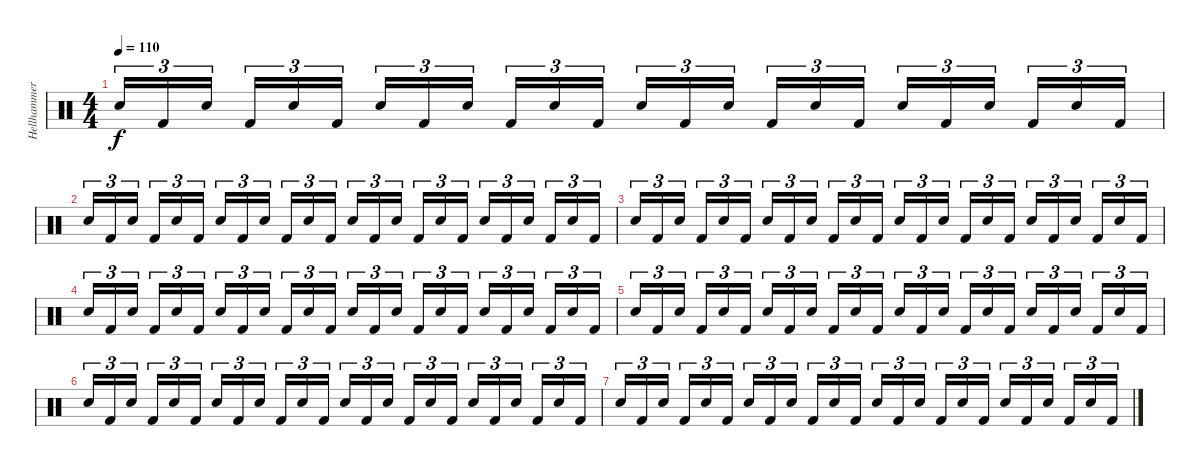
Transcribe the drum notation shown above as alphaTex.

\track ("Hellhammer" "Hellhammer") {instrument percussion}
\staff {score}
\articulation defaults
\ts (4 4)
\tempo 110
\clef neutral
\ks c "Electric Snare (hit)".16{tu (3 2) dy f} "Kick (hit) 2".16{tu (3 2)} "Electric Snare (hit)".16{tu (3 2)} "Kick (hit) 2".16{tu (3 2)} "Electric Snare (hit)".16{tu (3 2)} "Kick (hit) 2".16{tu (3 2)} "Electric Snare (hit)".16{tu (3 2)} "Kick (hit) 2".16{tu (3 2)} "Electric Snare (hit)".16{tu (3 2)} "Kick (hit) 2".16{tu (3 2)} "Electric Snare (hit)".16{tu (3 2)} "Kick (hit) 2".16{tu (3 2)} "Electric Snare (hit)".16{tu (3 2)} "Kick (hit) 2".16{tu (3 2)} "Electric Snare (hit)".16{tu (3 2)} "Kick (hit) 2".16{tu (3 2)} "Electric Snare (hit)".16{tu (3 2)} "Kick (hit) 2".16{tu (3 2)} "Electric Snare (hit)".16{tu (3 2)} "Kick (hit) 2".16{tu (3 2)} "Electric Snare (hit)".16{tu (3 2)} "Kick (hit) 2".16{tu (3 2)} "Electric Snare (hit)".16{tu (3 2)} "Kick (hit) 2".16{tu (3 2)}
|
"Electric Snare (hit)".16{tu (3 2)} "Kick (hit) 2".16{tu (3 2)} "Electric Snare (hit)".16{tu (3 2)} "Kick (hit) 2".16{tu (3 2)} "Electric Snare (hit)".16{tu (3 2)} "Kick (hit) 2".16{tu (3 2)} "Electric Snare (hit)".16{tu (3 2)} "Kick (hit) 2".16{tu (3 2)} "Electric Snare (hit)".16{tu (3 2)} "Kick (hit) 2".16{tu (3 2)} "Electric Snare (hit)".16{tu (3 2)} "Kick (hit) 2".16{tu (3 2)} "Electric Snare (hit)".16{tu (3 2)} "Kick (hit) 2".16{tu (3 2)} "Electric Snare (hit)".16{tu (3 2)} "Kick (hit) 2".16{tu (3 2)} "Electric Snare (hit)".16{tu (3 2)} "Kick (hit) 2".16{tu (3 2)} "Electric Snare (hit)".16{tu (3 2)} "Kick (hit) 2".16{tu (3 2)} "Electric Snare (hit)".16{tu (3 2)} "Kick (hit) 2".16{tu (3 2)} "Electric Snare (hit)".16{tu (3 2)} "Kick (hit) 2".16{tu (3 2)} |
"Electric Snare (hit)".16{tu (3 2)} "Kick (hit) 2".16{tu (3 2)} "Electric Snare (hit)".16{tu (3 2)} "Kick (hit) 2".16{tu (3 2)} "Electric Snare (hit)".16{tu (3 2)} "Kick (hit) 2".16{tu (3 2)} "Electric Snare (hit)".16{tu (3 2)} "Kick (hit) 2".16{tu (3 2)} "Electric Snare (hit)".16{tu (3 2)} "Kick (hit) 2".16{tu (3 2)} "Electric Snare (hit)".16{tu (3 2)} "Kick (hit) 2".16{tu (3 2)} "Electric Snare (hit)".16{tu (3 2)} "Kick (hit) 2".16{tu (3 2)} "Electric Snare (hit)".16{tu (3 2)} "Kick (hit) 2".16{tu (3 2)} "Electric Snare (hit)".16{tu (3 2)} "Kick (hit) 2".16{tu (3 2)} "Electric Snare (hit)".16{tu (3 2)} "Kick (hit) 2".16{tu (3 2)} "Electric Snare (hit)".16{tu (3 2)} "Kick (hit) 2".16{tu (3 2)} "Electric Snare (hit)".16{tu (3 2)} "Kick (hit) 2".16{tu (3 2)} |
"Electric Snare (hit)".16{tu (3 2)} "Kick (hit) 2".16{tu (3 2)} "Electric Snare (hit)".16{tu (3 2)} "Kick (hit) 2".16{tu (3 2)} "Electric Snare (hit)".16{tu (3 2)} "Kick (hit) 2".16{tu (3 2)} "Electric Snare (hit)".16{tu (3 2)} "Kick (hit) 2".16{tu (3 2)} "Electric Snare (hit)".16{tu (3 2)} "Kick (hit) 2".16{tu (3 2)} "Electric Snare (hit)".16{tu (3 2)} "Kick (hit) 2".16{tu (3 2)} "Electric Snare (hit)".16{tu (3 2)} "Kick (hit) 2".16{tu (3 2)} "Electric Snare (hit)".16{tu (3 2)} "Kick (hit) 2".16{tu (3 2)} "Electric Snare (hit)".16{tu (3 2)} "Kick (hit) 2".16{tu (3 2)} "Electric Snare (hit)".16{tu (3 2)} "Kick (hit) 2".16{tu (3 2)} "Electric Snare (hit)".16{tu (3 2)} "Kick (hit) 2".16{tu (3 2)} "Electric Snare (hit)".16{tu (3 2)} "Kick (hit) 2".16{tu (3 2)} |
"Electric Snare (hit)".16{tu (3 2)} "Kick (hit) 2".16{tu (3 2)} "Electric Snare (hit)".16{tu (3 2)} "Kick (hit) 2".16{tu (3 2)} "Electric Snare (hit)".16{tu (3 2)} "Kick (hit) 2".16{tu (3 2)} "Electric Snare (hit)".16{tu (3 2)} "Kick (hit) 2".16{tu (3 2)} "Electric Snare (hit)".16{tu (3 2)} "Kick (hit) 2".16{tu (3 2)} "Electric Snare (hit)".16{tu (3 2)} "Kick (hit) 2".16{tu (3 2)} "Electric Snare (hit)".16{tu (3 2)} "Kick (hit) 2".16{tu (3 2)} "Electric Snare (hit)".16{tu (3 2)} "Kick (hit) 2".16{tu (3 2)} "Electric Snare (hit)".16{tu (3 2)} "Kick (hit) 2".16{tu (3 2)} "Electric Snare (hit)".16{tu (3 2)} "Kick (hit) 2".16{tu (3 2)} "Electric Snare (hit)".16{tu (3 2)} "Kick (hit) 2".16{tu (3 2)} "Electric Snare (hit)".16{tu (3 2)} "Kick (hit) 2".16{tu (3 2)} |
"Electric Snare (hit)".16{tu (3 2)} "Kick (hit) 2".16{tu (3 2)} "Electric Snare (hit)".16{tu (3 2)} "Kick (hit) 2".16{tu (3 2)} "Electric Snare (hit)".16{tu (3 2)} "Kick (hit) 2".16{tu (3 2)} "Electric Snare (hit)".16{tu (3 2)} "Kick (hit) 2".16{tu (3 2)} "Electric Snare (hit)".16{tu (3 2)} "Kick (hit) 2".16{tu (3 2)} "Electric Snare (hit)".16{tu (3 2)} "Kick (hit) 2".16{tu (3 2)} "Electric Snare (hit)".16{tu (3 2)} "Kick (hit) 2".16{tu (3 2)} "Electric Snare (hit)".16{tu (3 2)} "Kick (hit) 2".16{tu (3 2)} "Electric Snare (hit)".16{tu (3 2)} "Kick (hit) 2".16{tu (3 2)} "Electric Snare (hit)".16{tu (3 2)} "Kick (hit) 2".16{tu (3 2)} "Electric Snare (hit)".16{tu (3 2)} "Kick (hit) 2".16{tu (3 2)} "Electric Snare (hit)".16{tu (3 2)} "Kick (hit) 2".16{tu (3 2)} |
"Electric Snare (hit)".16{tu (3 2)} "Kick (hit) 2".16{tu (3 2)} "Electric Snare (hit)".16{tu (3 2)} "Kick (hit) 2".16{tu (3 2)} "Electric Snare (hit)".16{tu (3 2)} "Kick (hit) 2".16{tu (3 2)} "Electric Snare (hit)".16{tu (3 2)} "Kick (hit) 2".16{tu (3 2)} "Electric Snare (hit)".16{tu (3 2)} "Kick (hit) 2".16{tu (3 2)} "Electric Snare (hit)".16{tu (3 2)} "Kick (hit) 2".16{tu (3 2)} "Electric Snare (hit)".16{tu (3 2)} "Kick (hit) 2".16{tu (3 2)} "Electric Snare (hit)".16{tu (3 2)} "Kick (hit) 2".16{tu (3 2)} "Electric Snare (hit)".16{tu (3 2)} "Kick (hit) 2".16{tu (3 2)} "Electric Snare (hit)".16{tu (3 2)} "Kick (hit) 2".16{tu (3 2)} "Electric Snare (hit)".16{tu (3 2)} "Kick (hit) 2".16{tu (3 2)} "Electric Snare (hit)".16{tu (3 2)} "Kick (hit) 2".16{tu (3 2)}
